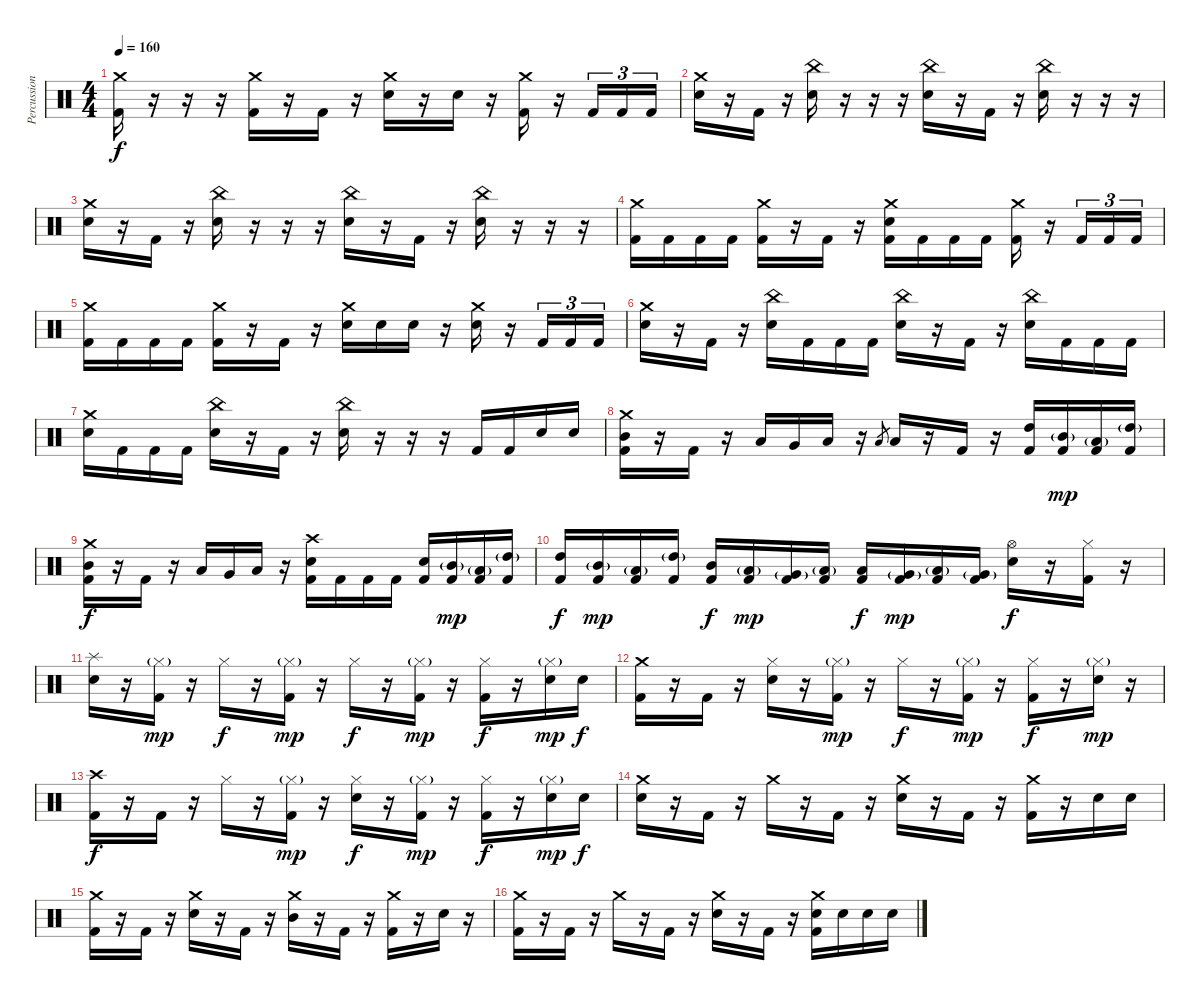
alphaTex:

\track ("Percussion" "Percussion") {instrument percussion}
\staff {score}
\articulation defaults
\ts (4 4)
\tempo 160
\clef neutral
\ks c
("Crash medium (hit)" "Kick (hit) 2").16{dy f} r.16 r.16 r.16 ("Crash medium (hit)" "Kick (hit) 2").16 r.16 "Kick (hit) 2".16 r.16 ("Crash medium (hit)" "Electric Snare (hit)").16 r.16 "Electric Snare (hit)".16 r.16 ("Crash medium (hit)" "Kick (hit) 2").16 r.16 "Kick (hit) 2".16{tu (3 2)} "Kick (hit) 2".16{tu (3 2)} "Kick (hit) 2".16{tu (3 2)} |
("Crash medium (hit)" "Electric Snare (hit)").16 r.16 "Kick (hit) 2".16 r.16 ("China (hit)" "Electric Snare (hit)").16 r.16 r.16 r.16 ("China (hit)" "Electric Snare (hit)").16 r.16 "Kick (hit) 2".16 r.16 ("China (hit)" "Electric Snare (hit)").16 r.16 r.16 r.16 |
("Crash medium (hit)" "Electric Snare (hit)").16 r.16 "Kick (hit) 2".16 r.16 ("China (hit)" "Electric Snare (hit)").16 r.16 r.16 r.16 ("China (hit)" "Electric Snare (hit)").16 r.16 "Kick (hit) 2".16 r.16 ("China (hit)" "Electric Snare (hit)").16 r.16 r.16 r.16 |
("Crash medium (hit)" "Kick (hit) 2").16 "Kick (hit) 2".16 "Kick (hit) 2".16 "Kick (hit) 2".16 ("Crash medium (hit)" "Kick (hit) 2").16 r.16 "Kick (hit) 2".16 r.16 ("Crash medium (hit)" "Electric Snare (hit)" "Kick (hit) 2").16 "Kick (hit) 2".16 "Kick (hit) 2".16 "Kick (hit) 2".16 ("Crash medium (hit)" "Kick (hit) 2").16 r.16 "Kick (hit) 2".16{tu (3 2)} "Kick (hit) 2".16{tu (3 2)} "Kick (hit) 2".16{tu (3 2)} |
("Crash medium (hit)" "Kick (hit) 2").16 "Kick (hit) 2".16 "Kick (hit) 2".16 "Kick (hit) 2".16 ("Crash medium (hit)" "Kick (hit) 2").16 r.16 "Kick (hit) 2".16 r.16 ("Crash medium (hit)" "Electric Snare (hit)").16 "Electric Snare (hit)".16 "Electric Snare (hit)".16 r.16 ("Crash medium (hit)" "Electric Snare (hit)").16 r.16 "Kick (hit) 2".16{tu (3 2)} "Kick (hit) 2".16{tu (3 2)} "Kick (hit) 2".16{tu (3 2)} |
("Crash medium (hit)" "Electric Snare (hit)").16 r.16 "Kick (hit) 2".16 r.16 ("China (hit)" "Electric Snare (hit)").16 "Kick (hit) 2".16 "Kick (hit) 2".16 "Kick (hit) 2".16 ("China (hit)" "Electric Snare (hit)").16 r.16 "Kick (hit) 2".16 r.16 ("China (hit)" "Electric Snare (hit)").16 "Kick (hit) 2".16 "Kick (hit) 2".16 "Kick (hit) 2".16 |
("Crash medium (hit)" "Electric Snare (hit)").16 "Kick (hit) 2".16 "Kick (hit) 2".16 "Kick (hit) 2".16 ("China (hit)" "Electric Snare (hit)").16 r.16 "Kick (hit) 2".16 r.16 ("China (hit)" "Electric Snare (hit)").16 r.16 r.16 r.16 "Kick (hit) 2".16 "Kick (hit) 2".16 "Electric Snare (hit)".16 "Electric Snare (hit)".16 |
("Crash medium (hit)" "Mid Tom (hit)" "Kick (hit) 2").16 r.16 "Kick (hit) 2".16 r.16 "Low Tom (hit)".16 "Very Low Tom (hit)".16 "Low Floor Tom (hit)".16 r.16 "Low Floor Tom (hit)".8{gr} "Low Floor Tom (hit)".16 r.16 "Kick (hit) 2".16 r.16 ("High Tom (hit)" "Kick (hit) 2").16 ("Mid Tom (hit)"{g} "Kick (hit) 2").16{dy mp} ("Low Tom (hit)"{g} "Kick (hit) 2").16 ("High Tom (hit)"{g} "Kick (hit) 2").16 |
("Crash medium (hit)" "Mid Tom (hit)" "Kick (hit) 2").16{dy f} r.16 "Kick (hit) 2".16 r.16 "Low Tom (hit)".16 "Very Low Tom (hit)".16 "Low Floor Tom (hit)".16 r.16 ("Crash high (hit)" "Electric Snare (hit)" "Kick (hit) 2").16 "Kick (hit) 2".16 "Kick (hit) 2".16 "Kick (hit) 2".16 ("Electric Snare (hit)" "Kick (hit) 2").16 ("Mid Tom (hit)"{g} "Kick (hit) 2").16{dy mp} ("Low Tom (hit)"{g} "Kick (hit) 2").16 ("High Tom (hit)"{g} "Kick (hit) 2").16 |
("High Tom (hit)" "Kick (hit) 2").16{dy f} ("Mid Tom (hit)"{g} "Kick (hit) 2").16{dy mp} ("Low Tom (hit)"{g} "Kick (hit) 2").16 ("High Tom (hit)"{g} "Kick (hit) 2").16 ("Mid Tom (hit)" "Kick (hit) 2").16{dy f} ("Low Tom (hit)"{g} "Kick (hit) 2").16{dy mp} ("Very Low Tom (hit)"{g} "Kick (hit) 2").16 ("Low Tom (hit)"{g} "Kick (hit) 2").16 ("Low Tom (hit)" "Kick (hit) 2").16{dy f} ("Very Low Tom (hit)"{g} "Kick (hit) 2").16{dy mp} ("Low Floor Tom (hit)"{g} "Kick (hit) 2").16 ("Very Low Tom (hit)"{g} "Kick (hit) 2").16 ("Hi-Hat (open)" "Electric Snare (hit)").16{dy f} r.16 ("Hi-Hat (closed)" "Kick (hit) 2").16 r.16 |
("Splash (hit)" "Electric Snare (hit)").16 r.16 ("Hi-Hat (closed)"{g} "Kick (hit) 2").16{dy mp} r.16 "Hi-Hat (closed)".16{dy f} r.16 ("Hi-Hat (closed)"{g} "Kick (hit) 2").16{dy mp} r.16 "Hi-Hat (closed)".16{dy f} r.16 ("Hi-Hat (closed)"{g} "Kick (hit) 2").16{dy mp} r.16 ("Hi-Hat (closed)" "Kick (hit) 2").16{dy f} r.16 ("Hi-Hat (closed)"{g} "Electric Snare (hit)").16{dy mp} "Electric Snare (hit)".16{dy f} |
("Crash medium (hit)" "Kick (hit) 2").16 r.16 "Kick (hit) 2".16 r.16 ("Hi-Hat (closed)" "Electric Snare (hit)").16 r.16 ("Hi-Hat (closed)"{g} "Kick (hit) 2").16{dy mp} r.16 "Hi-Hat (closed)".16{dy f} r.16 ("Hi-Hat (closed)"{g} "Kick (hit) 2").16{dy mp} r.16 ("Hi-Hat (closed)" "Kick (hit) 2").16{dy f} r.16 ("Hi-Hat (closed)"{g} "Electric Snare (hit)").16{dy mp} r.16 |
("Crash high (hit)" "Kick (hit) 2").16{dy f} r.16 "Kick (hit) 2".16 r.16 "Hi-Hat (closed)".16 r.16 ("Hi-Hat (closed)"{g} "Kick (hit) 2").16{dy mp} r.16 ("Hi-Hat (closed)" "Electric Snare (hit)").16{dy f} r.16 ("Hi-Hat (closed)"{g} "Kick (hit) 2").16{dy mp} r.16 ("Hi-Hat (closed)" "Kick (hit) 2").16{dy f} r.16 ("Hi-Hat (closed)"{g} "Electric Snare (hit)").16{dy mp} "Electric Snare (hit)".16{dy f} |
("Crash medium (hit)" "Electric Snare (hit)").16 r.16 "Kick (hit) 2".16 r.16 "Crash medium (hit)".16 r.16 "Kick (hit) 2".16 r.16 ("Crash medium (hit)" "Electric Snare (hit)").16 r.16 "Kick (hit) 2".16 r.16 ("Crash medium (hit)" "Kick (hit) 2").16 r.16 "Electric Snare (hit)".16 "Electric Snare (hit)".16 |
("Crash medium (hit)" "Kick (hit) 2").16 r.16 "Kick (hit) 2".16 r.16 ("Crash medium (hit)" "Electric Snare (hit)").16 r.16 "Kick (hit) 2".16 r.16 ("Crash medium (hit)" "Mid Tom (hit)").16 r.16 "Kick (hit) 2".16 r.16 ("Crash medium (hit)" "Kick (hit) 2").16 r.16 "Electric Snare (hit)".16 r.16 |
("Crash medium (hit)" "Kick (hit) 2").16 r.16 "Kick (hit) 2".16 r.16 "Crash medium (hit)".16 r.16 "Kick (hit) 2".16 r.16 ("Crash medium (hit)" "Electric Snare (hit)").16 r.16 "Kick (hit) 2".16 r.16 ("Crash medium (hit)" "Electric Snare (hit)" "Kick (hit) 2").16 "Electric Snare (hit)".16 "Electric Snare (hit)".16 "Electric Snare (hit)".16
